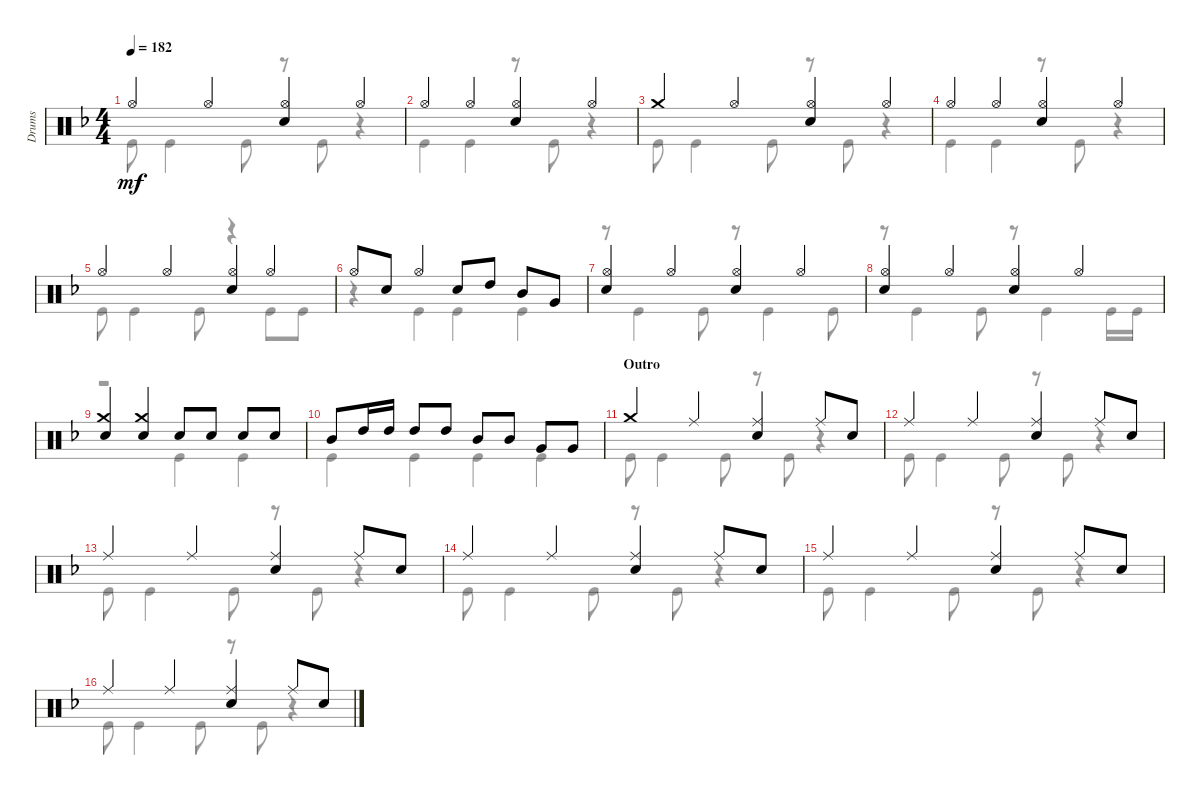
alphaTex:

\track ("Drums" "Drums") {instrument percussion}
\staff {score}
\articulation defaults
\voice
\ts (4 4)
\tempo 182
\clef neutral
\ks f "Hi-Hat (open)".4{dy mf} "Hi-Hat (open)".4
("Hi-Hat (open)" "Snare (hit) 2").4 "Hi-Hat (open)".4 |
"Hi-Hat (open)".4 "Hi-Hat (open)".4 ("Hi-Hat (open)" "Snare (hit) 2").4 "Hi-Hat (open)".4 |
"Crash medium (hit)".4 "Hi-Hat (open)".4 ("Hi-Hat (open)" "Snare (hit) 2").4 "Hi-Hat (open)".4 |
"Hi-Hat (open)".4 "Hi-Hat (open)".4 ("Hi-Hat (open)" "Snare (hit) 2").4 "Hi-Hat (open)".4 |
"Hi-Hat (open)".4 "Hi-Hat (open)".4 ("Hi-Hat (open)" "Snare (hit) 2").4 "Hi-Hat (open)".4 |
"Hi-Hat (open)".8 "Snare (hit) 2".8 "Hi-Hat (open)".4 "Snare (hit) 2".8 "High Tom (hit)".8 "Mid Tom (hit)".8 "Very Low Tom (hit)".8 |
("Hi-Hat (open)" "Snare (hit) 2").4 "Hi-Hat (open)".4 ("Hi-Hat (open)" "Snare (hit) 2").4 "Hi-Hat (open)".4 |
("Snare (hit) 2" "Hi-Hat (open)").4 "Hi-Hat (open)".4 ("Snare (hit) 2" "Hi-Hat (open)").4 "Hi-Hat (open)".4 |
("Crash medium (hit)" "Snare (hit) 2").4 ("Crash medium (hit)" "Snare (hit) 2").4 "Snare (hit) 2".8 "Snare (hit) 2".8 "Snare (hit) 2".8 "Snare (hit) 2".8 |
"Mid Tom (hit)".8 "High Tom (hit)".16 "High Tom (hit)".16 "High Tom (hit)".8 "High Tom (hit)".8 "Mid Tom (hit)".8 "Mid Tom (hit)".8 "Very Low Tom (hit)".8 "Very Low Tom (hit)".8 |
\section ("" "Outro")
"Crash medium (hit)".4 "Ride (middle)".4 ("Ride (middle)" "Snare (hit) 2").4 "Ride (middle)".8 "Snare (hit) 2".8 |
"Ride (middle)".4 "Ride (middle)".4 ("Ride (middle)" "Snare (hit) 2").4 "Ride (middle)".8 "Snare (hit) 2".8 |
"Ride (middle)".4 "Ride (middle)".4 ("Ride (middle)" "Snare (hit) 2").4 "Ride (middle)".8 "Snare (hit) 2".8 |
"Ride (middle)".4 "Ride (middle)".4 ("Ride (middle)" "Snare (hit) 2").4 "Ride (middle)".8 "Snare (hit) 2".8 |
"Ride (middle)".4 "Ride (middle)".4 ("Ride (middle)" "Snare (hit) 2").4 "Ride (middle)".8 "Snare (hit) 2".8 |
"Ride (middle)".4 "Ride (middle)".4 ("Ride (middle)" "Snare (hit) 2").4 "Ride (middle)".8 "Snare (hit) 2".8
\voice
\clef neutral
\ottava regular
\simile none
\ks f "Kick (hit)".8{dy mf} "Kick (hit)".4 "Kick (hit)".8
r.8 "Kick (hit)".8 r.4 |
"Kick (hit)".4 "Kick (hit)".4 r.8 "Kick (hit)".8 r.4 |
"Kick (hit)".8 "Kick (hit)".4 "Kick (hit)".8 r.8 "Kick (hit)".8 r.4 |
"Kick (hit)".4 "Kick (hit)".4 r.8 "Kick (hit)".8 r.4 |
"Kick (hit)".8 "Kick (hit)".4 "Kick (hit)".8 r.4 "Kick (hit)".8 "Kick (hit)".8 |
r.4 "Kick (hit)".4 "Kick (hit)".4 "Kick (hit)".4 |
r.8 "Kick (hit)".4 "Kick (hit)".8 r.8 "Kick (hit)".4 "Kick (hit)".8 |
r.8 "Kick (hit)".4 "Kick (hit)".8 r.8 "Kick (hit)".4 "Kick (hit)".16 "Kick (hit)".16 |
r.2 "Kick (hit)".4 "Kick (hit)".4 |
"Kick (hit)".4 "Kick (hit)".4 "Kick (hit)".4 "Kick (hit)".4 |
"Kick (hit)".8 "Kick (hit)".4 "Kick (hit)".8 r.8 "Kick (hit)".8 r.4 |
"Kick (hit)".8 "Kick (hit)".4 "Kick (hit)".8 r.8 "Kick (hit)".8 r.4 |
"Kick (hit)".8 "Kick (hit)".4 "Kick (hit)".8 r.8 "Kick (hit)".8 r.4 |
"Kick (hit)".8 "Kick (hit)".4 "Kick (hit)".8 r.8 "Kick (hit)".8 r.4 |
"Kick (hit)".8 "Kick (hit)".4 "Kick (hit)".8 r.8 "Kick (hit)".8 r.4 |
"Kick (hit)".8 "Kick (hit)".4 "Kick (hit)".8 r.8 "Kick (hit)".8 r.4
